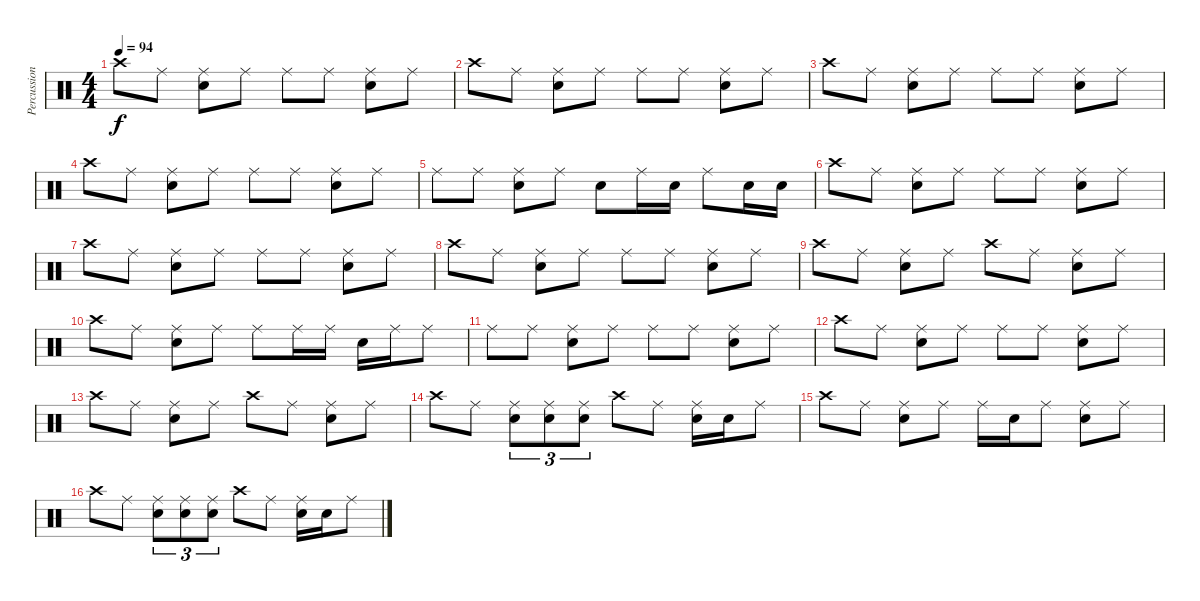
\track ("Percussion" "Percussion") {instrument percussion}
\staff {score}
\articulation defaults
\ts (4 4)
\tempo 94
\clef neutral
\ks c "Crash high (hit)".8{dy f} "Ride (middle)".8
("Ride (middle)" "Snare (hit) 2").8 "Ride (middle)".8 "Ride (middle)".8 "Ride (middle)".8 ("Ride (middle)" "Snare (hit) 2").8 "Ride (middle)".8 |
"Crash high (hit)".8 "Ride (middle)".8 ("Ride (middle)" "Snare (hit) 2").8 "Ride (middle)".8 "Ride (middle)".8 "Ride (middle)".8 ("Ride (middle)" "Snare (hit) 2").8 "Ride (middle)".8 |
"Crash high (hit)".8 "Ride (middle)".8 ("Ride (middle)" "Snare (hit) 2").8 "Ride (middle)".8 "Ride (middle)".8 "Ride (middle)".8 ("Ride (middle)" "Snare (hit) 2").8 "Ride (middle)".8 |
"Crash high (hit)".8 "Ride (middle)".8 ("Ride (middle)" "Snare (hit) 2").8 "Ride (middle)".8 "Ride (middle)".8 "Ride (middle)".8 ("Ride (middle)" "Snare (hit) 2").8 "Ride (middle)".8 |
"Ride (middle)".8 "Ride (middle)".8 ("Ride (middle)" "Snare (hit) 2").8 "Ride (middle)".8 "Snare (hit) 2".8 "Ride (middle)".16 "Snare (hit) 2".16 "Ride (middle)".8 "Snare (hit) 2".16 "Snare (hit) 2".16 |
"Crash high (hit)".8 "Ride (middle)".8 ("Ride (middle)" "Snare (hit) 2").8 "Ride (middle)".8 "Ride (middle)".8 "Ride (middle)".8 ("Ride (middle)" "Snare (hit) 2").8 "Ride (middle)".8 |
"Crash high (hit)".8 "Ride (middle)".8 ("Ride (middle)" "Snare (hit) 2").8 "Ride (middle)".8 "Ride (middle)".8 "Ride (middle)".8 ("Ride (middle)" "Snare (hit) 2").8 "Ride (middle)".8 |
"Crash high (hit)".8 "Ride (middle)".8 ("Ride (middle)" "Snare (hit) 2").8 "Ride (middle)".8 "Ride (middle)".8 "Ride (middle)".8 ("Ride (middle)" "Snare (hit) 2").8 "Ride (middle)".8 |
"Crash high (hit)".8 "Ride (middle)".8 ("Ride (middle)" "Snare (hit) 2").8 "Ride (middle)".8 "Crash high (hit)".8 "Ride (middle)".8 ("Ride (middle)" "Snare (hit) 2").8 "Ride (middle)".8 |
"Crash high (hit)".8 "Ride (middle)".8 ("Ride (middle)" "Snare (hit) 2").8 "Ride (middle)".8 "Ride (middle)".8 "Ride (middle)".16 "Ride (middle)".16 "Snare (hit) 2".16 "Ride (middle)".16 "Ride (middle)".8 |
"Ride (middle)".8 "Ride (middle)".8 ("Ride (middle)" "Snare (hit) 2").8 "Ride (middle)".8 "Ride (middle)".8 "Ride (middle)".8 ("Ride (middle)" "Snare (hit) 2").8 "Ride (middle)".8 |
"Crash high (hit)".8 "Ride (middle)".8 ("Ride (middle)" "Snare (hit) 2").8 "Ride (middle)".8 "Ride (middle)".8 "Ride (middle)".8 ("Ride (middle)" "Snare (hit) 2").8 "Ride (middle)".8 |
"Crash high (hit)".8 "Ride (middle)".8 ("Ride (middle)" "Snare (hit) 2").8 "Ride (middle)".8 "Crash high (hit)".8 "Ride (middle)".8 ("Ride (middle)" "Snare (hit) 2").8 "Ride (middle)".8 |
"Crash high (hit)".8 "Ride (middle)".8 ("Ride (middle)" "Snare (hit) 2").8{tu (3 2)} ("Ride (middle)" "Snare (hit) 2").8{tu (3 2)} ("Ride (middle)" "Snare (hit) 2").8{tu (3 2)} "Crash high (hit)".8 "Ride (middle)".8 ("Ride (middle)" "Snare (hit) 2").16 "Snare (hit) 2".16 "Ride (middle)".8 |
"Crash high (hit)".8 "Ride (middle)".8 ("Ride (middle)" "Snare (hit) 2").8 "Ride (middle)".8 "Ride (middle)".16 "Snare (hit) 2".16 "Ride (middle)".8 ("Ride (middle)" "Snare (hit) 2").8 "Ride (middle)".8 |
"Crash high (hit)".8 "Ride (middle)".8 ("Ride (middle)" "Snare (hit) 2").8{tu (3 2)} ("Ride (middle)" "Snare (hit) 2").8{tu (3 2)} ("Ride (middle)" "Snare (hit) 2").8{tu (3 2)} "Crash high (hit)".8 "Ride (middle)".8 ("Ride (middle)" "Snare (hit) 2").16 "Snare (hit) 2".16 "Ride (middle)".8
